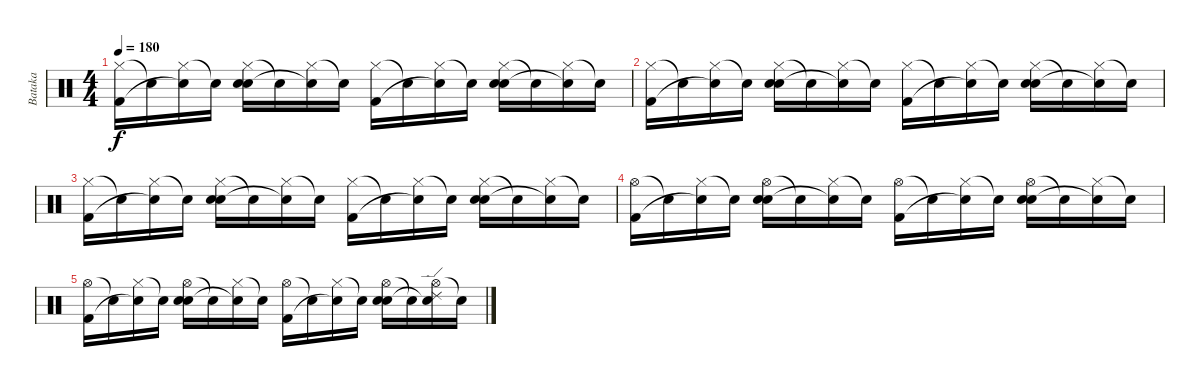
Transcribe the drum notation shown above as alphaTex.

\track ("Bataka" "Bataka") {instrument percussion}
\staff {score}
\articulation defaults
\ts (4 4)
\tempo 180
\clef neutral
\ks c
("Hi-Hat (closed)" "Kick (hit) 2").16{dy f} "Snare (hit)"{t}.16 ("Hi-Hat (closed)" "Snare (hit)"{t}).16 "Snare (hit)"{t}.16 ("Hi-Hat (closed)" "Electric Snare (hit)" "Snare (hit) 2").16 "Snare (hit)"{t}.16 ("Hi-Hat (closed)" "Snare (hit)"{t}).16 "Snare (hit)"{t}.16 ("Hi-Hat (closed)" "Kick (hit) 2").16 "Snare (hit)"{t}.16 ("Hi-Hat (closed)" "Snare (hit)"{t}).16 "Snare (hit)"{t}.16 ("Hi-Hat (closed)" "Electric Snare (hit)" "Snare (hit) 2").16 "Snare (hit)"{t}.16 ("Hi-Hat (closed)" "Snare (hit)"{t}).16 "Snare (hit)"{t}.16 |
("Hi-Hat (closed)" "Kick (hit) 2").16 "Snare (hit)"{t}.16 ("Hi-Hat (closed)" "Snare (hit)"{t}).16 "Snare (hit)"{t}.16 ("Hi-Hat (closed)" "Electric Snare (hit)" "Snare (hit) 2").16 "Snare (hit)"{t}.16 ("Hi-Hat (closed)" "Snare (hit)"{t}).16 "Snare (hit)"{t}.16 ("Hi-Hat (closed)" "Kick (hit) 2").16 "Snare (hit)"{t}.16 ("Hi-Hat (closed)" "Snare (hit)"{t}).16 "Snare (hit)"{t}.16 ("Hi-Hat (closed)" "Electric Snare (hit)" "Snare (hit) 2").16 "Snare (hit)"{t}.16 ("Hi-Hat (closed)" "Snare (hit)"{t}).16 "Snare (hit)"{t}.16 |
("Hi-Hat (closed)" "Kick (hit) 2").16 "Snare (hit)"{t}.16 ("Hi-Hat (closed)" "Snare (hit)"{t}).16 "Snare (hit)"{t}.16 ("Hi-Hat (closed)" "Electric Snare (hit)" "Snare (hit) 2").16 "Snare (hit)"{t}.16 ("Hi-Hat (closed)" "Snare (hit)"{t}).16 "Snare (hit)"{t}.16 ("Hi-Hat (closed)" "Kick (hit) 2").16 "Snare (hit)"{t}.16 ("Hi-Hat (closed)" "Snare (hit)"{t}).16 "Snare (hit)"{t}.16 ("Hi-Hat (closed)" "Electric Snare (hit)" "Snare (hit) 2").16 "Snare (hit)"{t}.16 ("Hi-Hat (closed)" "Snare (hit)"{t}).16 "Snare (hit)"{t}.16 |
("Hi-Hat (open)" "Kick (hit) 2").16 "Snare (hit)"{t}.16 ("Hi-Hat (closed)" "Snare (hit)"{t}).16 "Snare (hit)"{t}.16 ("Hi-Hat (open)" "Electric Snare (hit)" "Snare (hit) 2").16 "Snare (hit)"{t}.16 ("Hi-Hat (closed)" "Snare (hit)"{t}).16 "Snare (hit)"{t}.16 ("Hi-Hat (open)" "Kick (hit) 2").16 "Snare (hit)"{t}.16 ("Hi-Hat (closed)" "Snare (hit)"{t}).16 "Snare (hit)"{t}.16 ("Hi-Hat (open)" "Electric Snare (hit)" "Snare (hit) 2").16 "Snare (hit)"{t}.16 ("Hi-Hat (closed)" "Snare (hit)"{t}).16 "Snare (hit)"{t}.16 |
("Hi-Hat (open)" "Kick (hit) 2").16 "Snare (hit)"{t}.16 ("Hi-Hat (closed)" "Snare (hit)"{t}).16 "Snare (hit)"{t}.16 ("Hi-Hat (open)" "Electric Snare (hit)" "Snare (hit) 2").16 "Snare (hit)"{t}.16 ("Hi-Hat (closed)" "Snare (hit)"{t}).16 "Snare (hit)"{t}.16 ("Hi-Hat (open)" "Kick (hit) 2").16 "Snare (hit)"{t}.16 ("Hi-Hat (closed)" "Snare (hit)"{t}).16 "Snare (hit)"{t}.16 ("Hi-Hat (open)" "Electric Snare (hit)" "Snare (hit) 2").16 "Snare (hit)"{t}.16 ("Hi-Hat (open)" "Snare (hit)"{t} "Ride (edge) 2").16 "Snare (hit)"{t}.16
